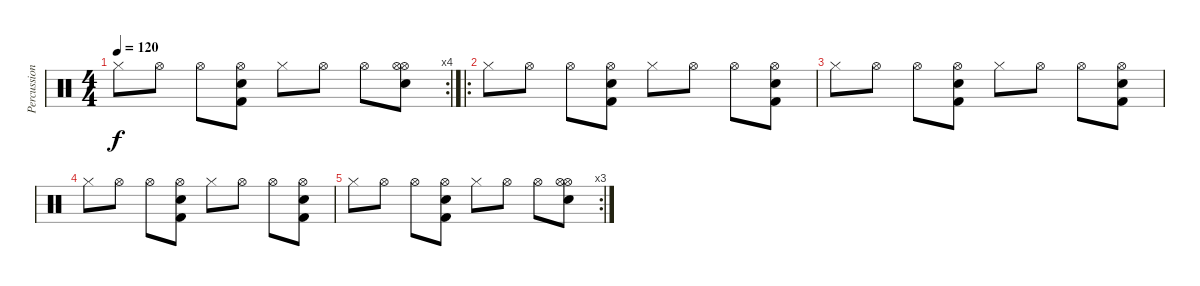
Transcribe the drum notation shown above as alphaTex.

\track ("Percussion" "Percussion") {instrument percussion}
\staff {score}
\articulation defaults
\rc 4
\ts (4 4)
\tempo 120
\clef neutral
\ks c "Hi-Hat (closed)".8{dy f} "Hi-Hat (open)".8 "Hi-Hat (open)".8
("Snare (hit) 2" "Kick (hit) 2" "Hi-Hat (open)").8 "Hi-Hat (closed)".8 "Hi-Hat (open)".8 "Hi-Hat (open)".8 ("Snare (hit) 2" "Hi-Hat (open)" "Hi-Hat (open)").8 |
\ro "Hi-Hat (closed)".8 "Hi-Hat (open)".8 "Hi-Hat (open)".8
("Snare (hit) 2" "Kick (hit) 2" "Hi-Hat (open)").8 "Hi-Hat (closed)".8 "Hi-Hat (open)".8 "Hi-Hat (open)".8 ("Snare (hit) 2" "Kick (hit) 2" "Hi-Hat (open)").8 |
"Hi-Hat (closed)".8 "Hi-Hat (open)".8 "Hi-Hat (open)".8 ("Snare (hit) 2" "Kick (hit) 2" "Hi-Hat (open)").8 "Hi-Hat (closed)".8 "Hi-Hat (open)".8 "Hi-Hat (open)".8 ("Snare (hit) 2" "Kick (hit) 2" "Hi-Hat (open)").8 |
"Hi-Hat (closed)".8 "Hi-Hat (open)".8 "Hi-Hat (open)".8 ("Snare (hit) 2" "Kick (hit) 2" "Hi-Hat (open)").8 "Hi-Hat (closed)".8 "Hi-Hat (open)".8 "Hi-Hat (open)".8 ("Snare (hit) 2" "Kick (hit) 2" "Hi-Hat (open)").8 |
\rc 3 "Hi-Hat (closed)".8 "Hi-Hat (open)".8 "Hi-Hat (open)".8
("Snare (hit) 2" "Kick (hit) 2" "Hi-Hat (open)").8 "Hi-Hat (closed)".8 "Hi-Hat (open)".8 "Hi-Hat (open)".8 ("Snare (hit) 2" "Hi-Hat (open)" "Hi-Hat (open)").8
